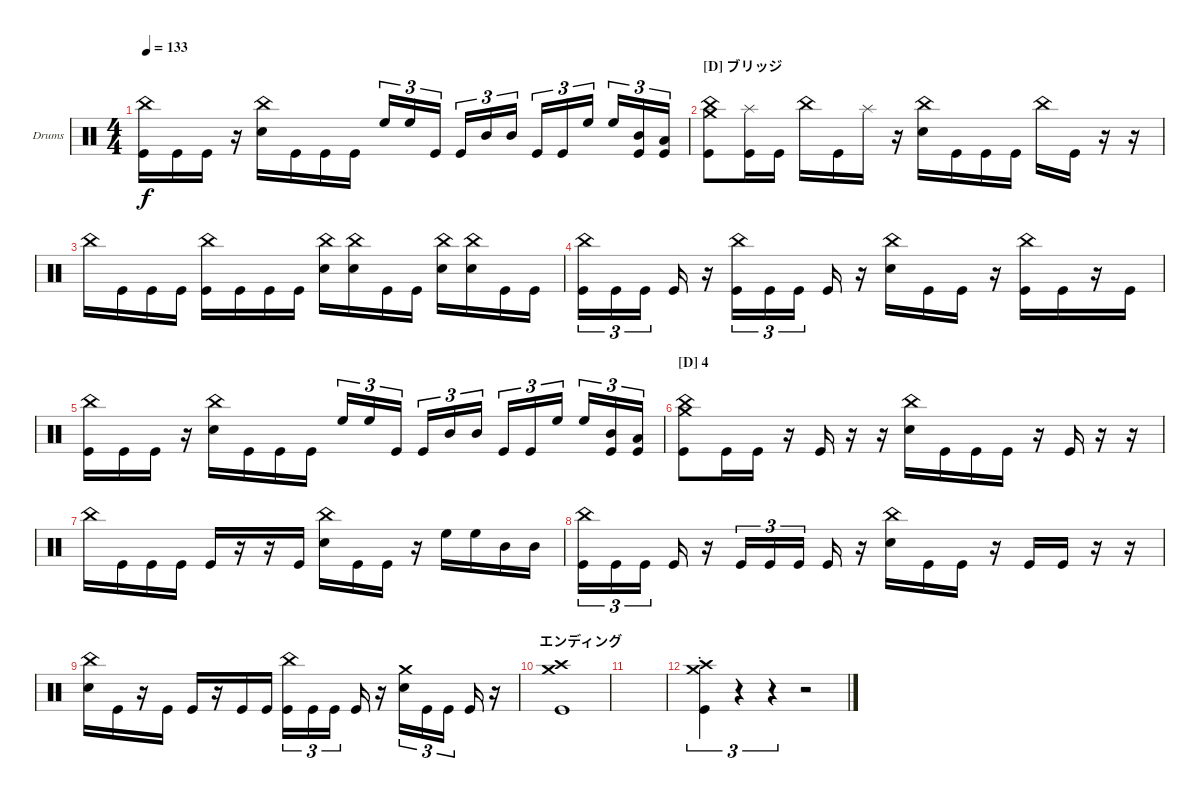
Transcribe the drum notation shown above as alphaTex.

\bracketExtendMode groupsimilarinstruments
\firstSystemTrackNameOrientation horizontal
\otherSystemsTrackNameOrientation horizontal
\track ("Ben Kazenoff" "Drums") {instrument percussion}
\staff {score}
\articulation defaults
\ts (4 4)
\tempo 133
\clef neutral
\ks c
("Kick (hit)" "China (hit)").16{dy f} "Kick (hit)".16 "Kick (hit)".16 r.16 ("Snare (hit) 2" "China (hit)").16 "Kick (hit)".16 "Kick (hit)".16 "Kick (hit)".16 "High Floor Tom (hit)".16{tu (3 2)} "High Floor Tom (hit)".16{tu (3 2)} "Kick (hit)".16{tu (3 2)} "Kick (hit)".16{tu (3 2)} "Mid Tom (hit)".16{tu (3 2)} "Mid Tom (hit)".16{tu (3 2)} "Kick (hit)".16{tu (3 2)} "Kick (hit)".16{tu (3 2)} "High Floor Tom (hit)".16{tu (3 2)} "High Floor Tom (hit)".16{tu (3 2)} ("Kick (hit)" "Mid Tom (hit)").16{tu (3 2)} ("Kick (hit)" "Low Tom (hit)").16{tu (3 2)} |
\section ("D" "ブリッジ")
("China (hit)" "Crash medium (hit)" "Kick (hit)").8 ("Splash (hit)" "Kick (hit)").16 "Kick (hit)".16 "China (hit)".16 "Kick (hit)".16 "Splash (hit)".16 r.16 ("China (hit)" "Snare (hit) 2").16 "Kick (hit)".16 "Kick (hit)".16 "Kick (hit)".16 "China (hit)".16 "Kick (hit)".16 r.16 r.16 |
"China (hit)".16 "Kick (hit)".16 "Kick (hit)".16 "Kick (hit)".16 ("China (hit)" "Kick (hit)").16 "Kick (hit)".16 "Kick (hit)".16 "Kick (hit)".16 ("China (hit)" "Snare (hit) 2").16 ("China (hit)" "Snare (hit) 2").16 "Kick (hit)".16 "Kick (hit)".16 ("China (hit)" "Snare (hit) 2").16 ("China (hit)" "Snare (hit) 2").16 "Kick (hit)".16 "Kick (hit)".16 |
("China (hit)" "Kick (hit)").16{tu (3 2)} "Kick (hit)".16{tu (3 2)} "Kick (hit)".16{tu (3 2)} "Kick (hit)".16 r.16 ("China (hit)" "Kick (hit)").16{tu (3 2)} "Kick (hit)".16{tu (3 2)} "Kick (hit)".16{tu (3 2)} "Kick (hit)".16 r.16 ("China (hit)" "Snare (hit) 2").16 "Kick (hit)".16 "Kick (hit)".16 r.16 ("China (hit)" "Kick (hit)").16 "Kick (hit)".16 r.16 "Kick (hit)".16 |
("Kick (hit)" "China (hit)").16 "Kick (hit)".16 "Kick (hit)".16 r.16 ("Snare (hit) 2" "China (hit)").16 "Kick (hit)".16 "Kick (hit)".16 "Kick (hit)".16 "High Floor Tom (hit)".16{tu (3 2)} "High Floor Tom (hit)".16{tu (3 2)} "Kick (hit)".16{tu (3 2)} "Kick (hit)".16{tu (3 2)} "Mid Tom (hit)".16{tu (3 2)} "Mid Tom (hit)".16{tu (3 2)} "Kick (hit)".16{tu (3 2)} "Kick (hit)".16{tu (3 2)} "High Floor Tom (hit)".16{tu (3 2)} "High Floor Tom (hit)".16{tu (3 2)} ("Kick (hit)" "Mid Tom (hit)").16{tu (3 2)} ("Kick (hit)" "Low Tom (hit)").16{tu (3 2)} |
\section ("D" "4")
("China (hit)" "Crash medium (hit)" "Kick (hit)").8 "Kick (hit)".16 "Kick (hit)".16 r.16 "Kick (hit)".16 r.16 r.16 ("China (hit)" "Snare (hit) 2").16 "Kick (hit)".16 "Kick (hit)".16 "Kick (hit)".16 r.16 "Kick (hit)".16 r.16 r.16 |
"China (hit)".16 "Kick (hit)".16 "Kick (hit)".16 "Kick (hit)".16 "Kick (hit)".16 r.16 r.16 "Kick (hit)".16 ("China (hit)" "Snare (hit) 2").16 "Kick (hit)".16 "Kick (hit)".16 r.16 "High Floor Tom (hit)".16 "High Floor Tom (hit)".16 "Mid Tom (hit)".16 "Mid Tom (hit)".16 |
("China (hit)" "Kick (hit)").16{tu (3 2)} "Kick (hit)".16{tu (3 2)} "Kick (hit)".16{tu (3 2)} "Kick (hit)".16 r.16 "Kick (hit)".16{tu (3 2)} "Kick (hit)".16{tu (3 2)} "Kick (hit)".16{tu (3 2)} "Kick (hit)".16 r.16 ("China (hit)" "Snare (hit) 2").16 "Kick (hit)".16 "Kick (hit)".16 r.16 "Kick (hit)".16 "Kick (hit)".16 r.16 r.16 |
("Snare (hit) 2" "China (hit)").16 "Kick (hit)".16 r.16 "Kick (hit)".16 "Kick (hit)".16 r.16 "Kick (hit)".16 "Kick (hit)".16 ("Kick (hit)" "China (hit)").16{tu (3 2)} "Kick (hit)".16{tu (3 2)} "Kick (hit)".16{tu (3 2)} "Kick (hit)".16 r.16 ("Snare (hit) 2" "Crash medium (hit)").16{tu (3 2)} "Kick (hit)".16{tu (3 2)} "Kick (hit)".16{tu (3 2)} "Kick (hit)".16 r.16 |
\section ("" "エンディング")
("Kick (hit)" "Crash medium (hit)" "Crash high (hit)").1 |
|
("Kick (hit)" "Crash medium (hit)"{st} "Crash high (hit)"{st}).4{tu (3 2)} r.4{tu (3 2)} r.4{tu (3 2)} r.2
